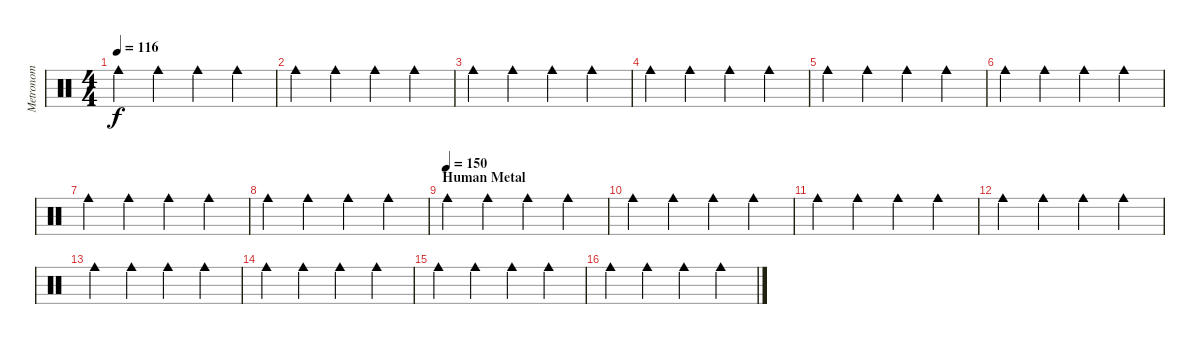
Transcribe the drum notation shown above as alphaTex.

\track ("Metronom" "Metronom") {instrument percussion}
\staff {score}
\articulation defaults
\ts (4 4)
\tempo 116
\clef neutral
\ks c "Cowbell medium (hit)".4{dy f} "Cowbell medium (hit)".4 "Cowbell medium (hit)".4 "Cowbell medium (hit)".4
|
"Cowbell medium (hit)".4 "Cowbell medium (hit)".4 "Cowbell medium (hit)".4 "Cowbell medium (hit)".4 |
"Cowbell medium (hit)".4 "Cowbell medium (hit)".4 "Cowbell medium (hit)".4 "Cowbell medium (hit)".4 |
"Cowbell medium (hit)".4 "Cowbell medium (hit)".4 "Cowbell medium (hit)".4 "Cowbell medium (hit)".4 |
"Cowbell medium (hit)".4 "Cowbell medium (hit)".4 "Cowbell medium (hit)".4 "Cowbell medium (hit)".4 |
"Cowbell medium (hit)".4 "Cowbell medium (hit)".4 "Cowbell medium (hit)".4 "Cowbell medium (hit)".4 |
"Cowbell medium (hit)".4 "Cowbell medium (hit)".4 "Cowbell medium (hit)".4 "Cowbell medium (hit)".4 |
"Cowbell medium (hit)".4 "Cowbell medium (hit)".4 "Cowbell medium (hit)".4 "Cowbell medium (hit)".4 |
\section ("" "Human Metal")
\tempo (150)
"Cowbell medium (hit)".4 "Cowbell medium (hit)".4 "Cowbell medium (hit)".4 "Cowbell medium (hit)".4 |
"Cowbell medium (hit)".4 "Cowbell medium (hit)".4 "Cowbell medium (hit)".4 "Cowbell medium (hit)".4 |
"Cowbell medium (hit)".4 "Cowbell medium (hit)".4 "Cowbell medium (hit)".4 "Cowbell medium (hit)".4 |
"Cowbell medium (hit)".4 "Cowbell medium (hit)".4 "Cowbell medium (hit)".4 "Cowbell medium (hit)".4 |
"Cowbell medium (hit)".4 "Cowbell medium (hit)".4 "Cowbell medium (hit)".4 "Cowbell medium (hit)".4 |
"Cowbell medium (hit)".4 "Cowbell medium (hit)".4 "Cowbell medium (hit)".4 "Cowbell medium (hit)".4 |
"Cowbell medium (hit)".4 "Cowbell medium (hit)".4 "Cowbell medium (hit)".4 "Cowbell medium (hit)".4 |
"Cowbell medium (hit)".4 "Cowbell medium (hit)".4 "Cowbell medium (hit)".4 "Cowbell medium (hit)".4
